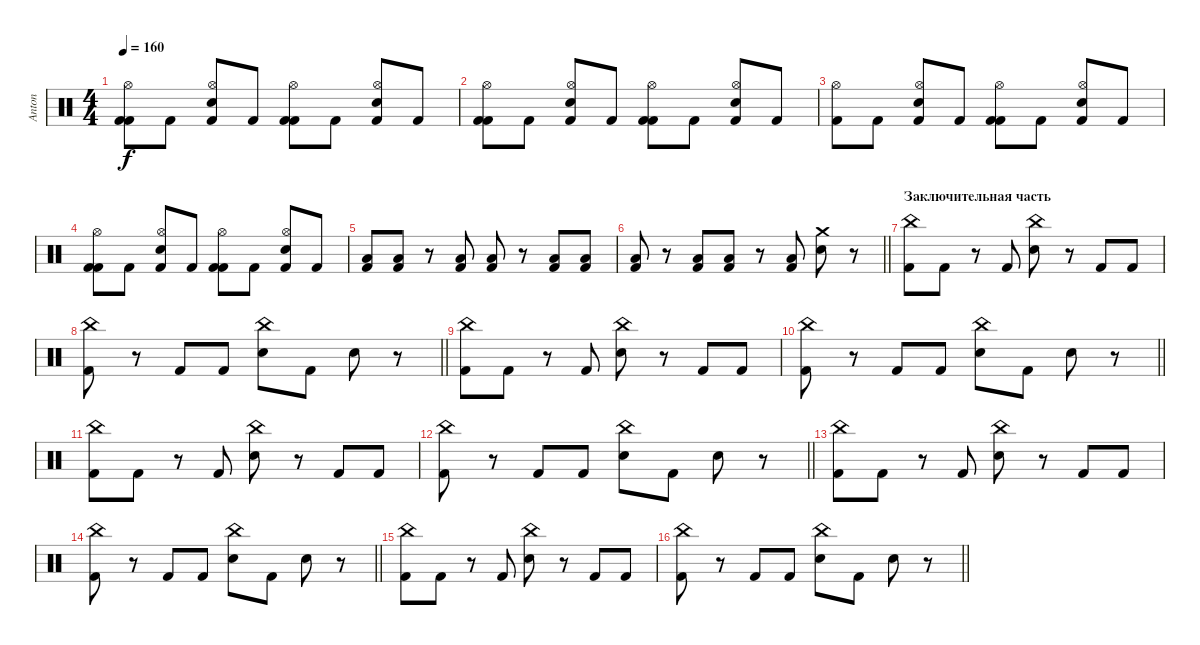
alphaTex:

\track ("Anton" "Anton") {instrument percussion}
\staff {score}
\articulation defaults
\ts (4 4)
\tempo 160
\clef neutral
\ks c
("Kick (hit) 2" "Hi-Hat (open)" "Kick (hit) 2").8{dy f} "Kick (hit) 2".8 ("Electric Snare (hit)" "Hi-Hat (open)" "Kick (hit) 2").8 "Kick (hit) 2".8 ("Kick (hit) 2" "Hi-Hat (open)" "Kick (hit) 2").8 "Kick (hit) 2".8 ("Electric Snare (hit)" "Hi-Hat (open)" "Kick (hit) 2").8 "Kick (hit) 2".8 |
("Kick (hit) 2" "Hi-Hat (open)" "Kick (hit) 2").8 "Kick (hit) 2".8 ("Electric Snare (hit)" "Hi-Hat (open)" "Kick (hit) 2").8 "Kick (hit) 2".8 ("Kick (hit) 2" "Hi-Hat (open)" "Kick (hit) 2").8 "Kick (hit) 2".8 ("Electric Snare (hit)" "Hi-Hat (open)" "Kick (hit) 2").8 "Kick (hit) 2".8 |
("Kick (hit) 2" "Hi-Hat (open)").8 "Kick (hit) 2".8 ("Electric Snare (hit)" "Hi-Hat (open)" "Kick (hit) 2").8 "Kick (hit) 2".8 ("Kick (hit) 2" "Hi-Hat (open)" "Kick (hit) 2").8 "Kick (hit) 2".8 ("Electric Snare (hit)" "Hi-Hat (open)" "Kick (hit) 2").8 "Kick (hit) 2".8 |
("Kick (hit) 2" "Hi-Hat (open)" "Kick (hit) 2").8 "Kick (hit) 2".8 ("Electric Snare (hit)" "Hi-Hat (open)" "Kick (hit) 2").8 "Kick (hit) 2".8 ("Kick (hit) 2" "Hi-Hat (open)" "Kick (hit) 2").8 "Kick (hit) 2".8 ("Electric Snare (hit)" "Hi-Hat (open)" "Kick (hit) 2").8 "Kick (hit) 2".8 |
("Kick (hit) 2" "Low Floor Tom (hit)").8 ("Kick (hit) 2" "Low Floor Tom (hit)").8 r.8 ("Kick (hit) 2" "Low Floor Tom (hit)").8 ("Kick (hit) 2" "Low Floor Tom (hit)").8 r.8 ("Kick (hit) 2" "Low Floor Tom (hit)").8 ("Kick (hit) 2" "Low Floor Tom (hit)").8 |
\barLineRight lightlight
("Kick (hit) 2" "Low Floor Tom (hit)").8 r.8 ("Kick (hit) 2" "Low Floor Tom (hit)").8 ("Kick (hit) 2" "Low Floor Tom (hit)").8 r.8 ("Kick (hit) 2" "Low Floor Tom (hit)").8 ("Electric Snare (hit)" "Crash medium (hit)").8 r.8 |
\section ("" "Заключительная часть")
("Kick (hit) 2" "China (hit)").8 "Kick (hit) 2".8 r.8 "Kick (hit) 2".8 ("Electric Snare (hit)" "China (hit)").8 r.8 "Kick (hit) 2".8 "Kick (hit) 2".8 |
\barLineRight lightlight
("Kick (hit) 2" "China (hit)").8 r.8 "Kick (hit) 2".8 "Kick (hit) 2".8 ("Electric Snare (hit)" "China (hit)").8 "Kick (hit) 2".8 "Electric Snare (hit)".8 r.8 |
("Kick (hit) 2" "China (hit)").8 "Kick (hit) 2".8 r.8 "Kick (hit) 2".8 ("Electric Snare (hit)" "China (hit)").8 r.8 "Kick (hit) 2".8 "Kick (hit) 2".8 |
\barLineRight lightlight
("Kick (hit) 2" "China (hit)").8 r.8 "Kick (hit) 2".8 "Kick (hit) 2".8 ("Electric Snare (hit)" "China (hit)").8 "Kick (hit) 2".8 "Electric Snare (hit)".8 r.8 |
("Kick (hit) 2" "China (hit)").8 "Kick (hit) 2".8 r.8 "Kick (hit) 2".8 ("Electric Snare (hit)" "China (hit)").8 r.8 "Kick (hit) 2".8 "Kick (hit) 2".8 |
\barLineRight lightlight
("Kick (hit) 2" "China (hit)").8 r.8 "Kick (hit) 2".8 "Kick (hit) 2".8 ("Electric Snare (hit)" "China (hit)").8 "Kick (hit) 2".8 "Electric Snare (hit)".8 r.8 |
("Kick (hit) 2" "China (hit)").8 "Kick (hit) 2".8 r.8 "Kick (hit) 2".8 ("Electric Snare (hit)" "China (hit)").8 r.8 "Kick (hit) 2".8 "Kick (hit) 2".8 |
\barLineRight lightlight
("Kick (hit) 2" "China (hit)").8 r.8 "Kick (hit) 2".8 "Kick (hit) 2".8 ("Electric Snare (hit)" "China (hit)").8 "Kick (hit) 2".8 "Electric Snare (hit)".8 r.8 |
("Kick (hit) 2" "China (hit)").8 "Kick (hit) 2".8 r.8 "Kick (hit) 2".8 ("Electric Snare (hit)" "China (hit)").8 r.8 "Kick (hit) 2".8 "Kick (hit) 2".8 |
\barLineRight lightlight
("Kick (hit) 2" "China (hit)").8 r.8 "Kick (hit) 2".8 "Kick (hit) 2".8 ("Electric Snare (hit)" "China (hit)").8 "Kick (hit) 2".8 "Electric Snare (hit)".8 r.8
